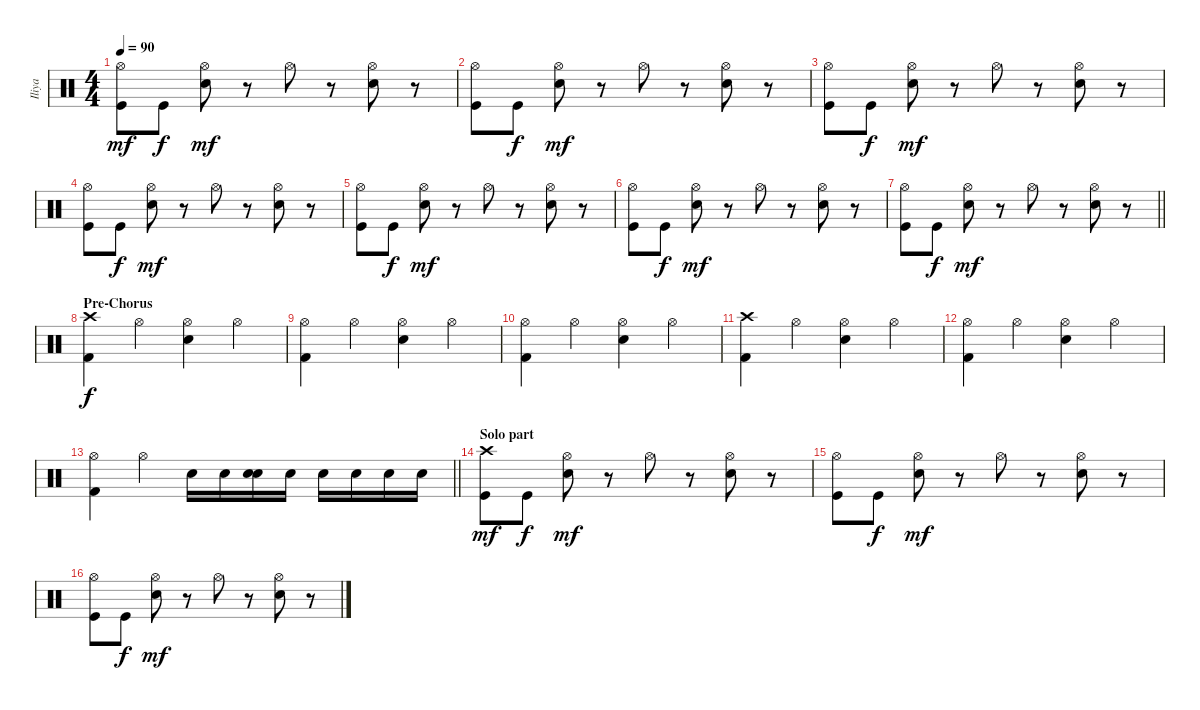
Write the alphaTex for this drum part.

\track ("Iliya" "Iliya") {instrument percussion}
\staff {score}
\articulation defaults
\ts (4 4)
\tempo 90
\clef neutral
\ks c
("Kick (hit)" "Hi-Hat (open)").8{dy mf} "Kick (hit)".8{dy f} ("Electric Snare (hit)" "Hi-Hat (open)").8{dy mf} r.8 "Hi-Hat (open)".8 r.8 ("Electric Snare (hit)" "Hi-Hat (open)").8 r.8 |
("Kick (hit)" "Hi-Hat (open)").8 "Kick (hit)".8{dy f} ("Electric Snare (hit)" "Hi-Hat (open)").8{dy mf} r.8 "Hi-Hat (open)".8 r.8 ("Electric Snare (hit)" "Hi-Hat (open)").8 r.8 |
("Kick (hit)" "Hi-Hat (open)").8 "Kick (hit)".8{dy f} ("Electric Snare (hit)" "Hi-Hat (open)").8{dy mf} r.8 "Hi-Hat (open)".8 r.8 ("Electric Snare (hit)" "Hi-Hat (open)").8 r.8 |
("Kick (hit)" "Hi-Hat (open)").8 "Kick (hit)".8{dy f} ("Electric Snare (hit)" "Hi-Hat (open)").8{dy mf} r.8 "Hi-Hat (open)".8 r.8 ("Electric Snare (hit)" "Hi-Hat (open)").8 r.8 |
("Kick (hit)" "Hi-Hat (open)").8 "Kick (hit)".8{dy f} ("Electric Snare (hit)" "Hi-Hat (open)").8{dy mf} r.8 "Hi-Hat (open)".8 r.8 ("Electric Snare (hit)" "Hi-Hat (open)").8 r.8 |
("Kick (hit)" "Hi-Hat (open)").8 "Kick (hit)".8{dy f} ("Electric Snare (hit)" "Hi-Hat (open)").8{dy mf} r.8 "Hi-Hat (open)".8 r.8 ("Electric Snare (hit)" "Hi-Hat (open)").8 r.8 |
\barLineRight lightlight
("Kick (hit)" "Hi-Hat (open)").8 "Kick (hit)".8{dy f} ("Electric Snare (hit)" "Hi-Hat (open)").8{dy mf} r.8 "Hi-Hat (open)".8 r.8 ("Electric Snare (hit)" "Hi-Hat (open)").8 r.8 |
\section ("" "Pre-Chorus")
("Kick (hit) 2" "Crash high (hit)").4{dy f} "Hi-Hat (open)".4 ("Electric Snare (hit)" "Hi-Hat (open)").4 "Hi-Hat (open)".4 |
("Hi-Hat (open)" "Kick (hit) 2").4 "Hi-Hat (open)".4 ("Electric Snare (hit)" "Hi-Hat (open)").4 "Hi-Hat (open)".4 |
("Hi-Hat (open)" "Kick (hit) 2").4 "Hi-Hat (open)".4 ("Electric Snare (hit)" "Hi-Hat (open)").4 "Hi-Hat (open)".4 |
("Kick (hit) 2" "Crash high (hit)").4 "Hi-Hat (open)".4 ("Electric Snare (hit)" "Hi-Hat (open)").4 "Hi-Hat (open)".4 |
("Hi-Hat (open)" "Kick (hit) 2").4 "Hi-Hat (open)".4 ("Electric Snare (hit)" "Hi-Hat (open)").4 "Hi-Hat (open)".4 |
\barLineRight lightlight
("Hi-Hat (open)" "Kick (hit) 2").4 "Hi-Hat (open)".4 "Snare (hit) 2".16 "Snare (hit) 2".16 ("Snare (hit) 2" "Snare (hit) 2").16 "Snare (hit) 2".16 "Snare (hit) 2".16 "Snare (hit) 2".16 "Snare (hit) 2".16 "Snare (hit) 2".16 |
\section ("" "Solo part")
("Kick (hit)" "Crash high (hit)").8{dy mf} "Kick (hit)".8{dy f} ("Electric Snare (hit)" "Hi-Hat (open)").8{dy mf} r.8 "Hi-Hat (open)".8 r.8 ("Electric Snare (hit)" "Hi-Hat (open)").8 r.8 |
("Kick (hit)" "Hi-Hat (open)").8 "Kick (hit)".8{dy f} ("Electric Snare (hit)" "Hi-Hat (open)").8{dy mf} r.8 "Hi-Hat (open)".8 r.8 ("Electric Snare (hit)" "Hi-Hat (open)").8 r.8 |
("Kick (hit)" "Hi-Hat (open)").8 "Kick (hit)".8{dy f} ("Electric Snare (hit)" "Hi-Hat (open)").8{dy mf} r.8 "Hi-Hat (open)".8 r.8 ("Electric Snare (hit)" "Hi-Hat (open)").8 r.8
